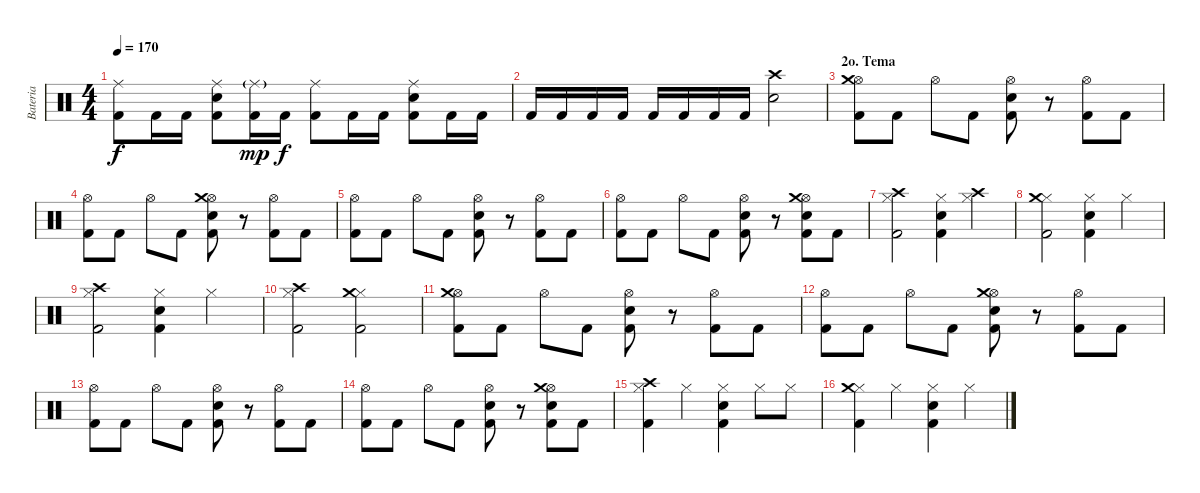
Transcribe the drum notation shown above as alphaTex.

\track ("Bateria" "Bateria") {instrument percussion}
\staff {score}
\articulation defaults
\ts (4 4)
\tempo 170
\clef neutral
\ks c
("Ride (middle)" "Kick (hit) 2").8{dy f} "Kick (hit) 2".16 "Kick (hit) 2".16 ("Ride (middle)" "Snare (hit) 2" "Kick (hit) 2").8 ("Ride (middle)"{g} "Kick (hit) 2").16{dy mp} "Kick (hit) 2".16{dy f} ("Ride (middle)" "Kick (hit) 2").8 "Kick (hit) 2".16 "Kick (hit) 2".16 ("Ride (middle)" "Snare (hit) 2" "Kick (hit) 2").8 "Kick (hit) 2".16 "Kick (hit) 2".16 |
"Kick (hit) 2".16 "Kick (hit) 2".16 "Kick (hit) 2".16 "Kick (hit) 2".16 "Kick (hit) 2".16 "Kick (hit) 2".16 "Kick (hit) 2".16 "Kick (hit) 2".16 ("Snare (hit) 2" "Crash high (hit)").2 |
\section ("" "2o. Tema")
("Hi-Hat (open)" "Kick (hit) 2" "Crash medium (hit)").8 "Kick (hit) 2".8 "Hi-Hat (open)".8 "Kick (hit) 2".8 ("Hi-Hat (open)" "Snare (hit) 2" "Kick (hit) 2").8 r.8 ("Hi-Hat (open)" "Kick (hit) 2").8 "Kick (hit) 2".8 |
("Hi-Hat (open)" "Kick (hit) 2").8 "Kick (hit) 2".8 "Hi-Hat (open)".8 "Kick (hit) 2".8 ("Hi-Hat (open)" "Snare (hit) 2" "Kick (hit) 2" "Crash medium (hit)").8 r.8 ("Hi-Hat (open)" "Kick (hit) 2").8 "Kick (hit) 2".8 |
("Hi-Hat (open)" "Kick (hit) 2").8 "Kick (hit) 2".8 "Hi-Hat (open)".8 "Kick (hit) 2".8 ("Hi-Hat (open)" "Snare (hit) 2" "Kick (hit) 2").8 r.8 ("Hi-Hat (open)" "Kick (hit) 2").8 "Kick (hit) 2".8 |
("Hi-Hat (open)" "Kick (hit) 2").8 "Kick (hit) 2".8 "Hi-Hat (open)".8 "Kick (hit) 2".8 ("Hi-Hat (open)" "Snare (hit) 2" "Kick (hit) 2").8 r.8 ("Hi-Hat (open)" "Snare (hit) 2" "Kick (hit) 2" "Crash medium (hit)").8 "Kick (hit) 2".8 |
("Hi-Hat (closed)" "Kick (hit) 2" "Crash high (hit)").2 ("Hi-Hat (closed)" "Snare (hit) 2" "Kick (hit) 2").4 ("Hi-Hat (closed)" "Crash high (hit)").4 |
("Hi-Hat (closed)" "Kick (hit) 2" "Crash medium (hit)").2 ("Hi-Hat (closed)" "Snare (hit) 2" "Kick (hit) 2").4 "Hi-Hat (closed)".4 |
("Hi-Hat (closed)" "Kick (hit) 2" "Crash high (hit)").2 ("Hi-Hat (closed)" "Snare (hit) 2" "Kick (hit) 2").4 "Hi-Hat (closed)".4 |
("Hi-Hat (closed)" "Kick (hit) 2" "Crash high (hit)").2 ("Hi-Hat (closed)" "Kick (hit) 2" "Crash medium (hit)").2 |
("Hi-Hat (open)" "Kick (hit) 2" "Crash medium (hit)").8 "Kick (hit) 2".8 "Hi-Hat (open)".8 "Kick (hit) 2".8 ("Hi-Hat (open)" "Snare (hit) 2" "Kick (hit) 2").8 r.8 ("Hi-Hat (open)" "Kick (hit) 2").8 "Kick (hit) 2".8 |
("Hi-Hat (open)" "Kick (hit) 2").8 "Kick (hit) 2".8 "Hi-Hat (open)".8 "Kick (hit) 2".8 ("Hi-Hat (open)" "Snare (hit) 2" "Kick (hit) 2" "Crash medium (hit)").8 r.8 ("Hi-Hat (open)" "Kick (hit) 2").8 "Kick (hit) 2".8 |
("Hi-Hat (open)" "Kick (hit) 2").8 "Kick (hit) 2".8 "Hi-Hat (open)".8 "Kick (hit) 2".8 ("Hi-Hat (open)" "Snare (hit) 2" "Kick (hit) 2").8 r.8 ("Hi-Hat (open)" "Kick (hit) 2").8 "Kick (hit) 2".8 |
("Hi-Hat (open)" "Kick (hit) 2").8 "Kick (hit) 2".8 "Hi-Hat (open)".8 "Kick (hit) 2".8 ("Hi-Hat (open)" "Snare (hit) 2" "Kick (hit) 2").8 r.8 ("Hi-Hat (open)" "Snare (hit) 2" "Kick (hit) 2" "Crash medium (hit)").8 "Kick (hit) 2".8 |
("Hi-Hat (closed)" "Kick (hit) 2" "Crash high (hit)").4 "Hi-Hat (closed)".4 ("Hi-Hat (closed)" "Snare (hit) 2" "Kick (hit) 2").4 "Hi-Hat (closed)".8 "Hi-Hat (closed)".8 |
("Hi-Hat (closed)" "Kick (hit) 2" "Crash medium (hit)").4 "Hi-Hat (closed)".4 ("Hi-Hat (closed)" "Snare (hit) 2" "Kick (hit) 2").4 "Hi-Hat (closed)".4
